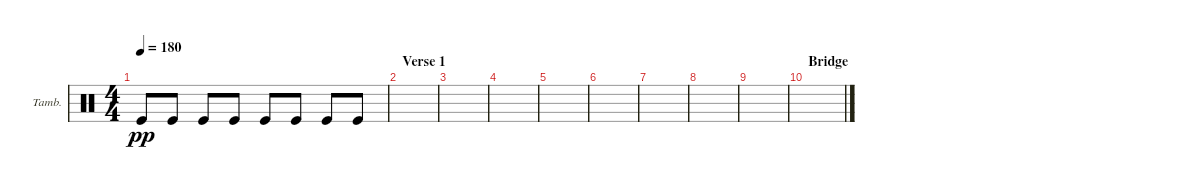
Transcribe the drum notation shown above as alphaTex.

\defaultSystemsLayout 4
\bracketExtendMode groupsimilarinstruments
\firstSystemTrackNameOrientation horizontal
\otherSystemsTrackNameOrientation horizontal
\track ("Tambourine" "Tamb.") {instrument percussion}
\staff {score}
\articulation defaults
\ts (4 4)
\tempo 180
\clef neutral
\scale
0.333333
\ks c "Kick (hit)".8{dy pp} "Kick (hit)".8 "Kick (hit)".8 "Kick (hit)".8 "Kick (hit)".8 "Kick (hit)".8 "Kick (hit)".8 "Kick (hit)".8
|
\section ("" "Verse 1")
\scale
0.333333 |
\scale
0.333333 |
\scale
0.333333 |
\scale
0.333333 |
\scale
0.333333 |
\scale
0.333333 |
\scale
0.333333 |
\scale
0.333333 |
\section ("" "Bridge")
\scale
0.333333 |
\scale
0.333333 |
\scale
0.333333 |
\scale
0.333333 |
\scale
0.333333 |
\scale
0.333333 |
\scale
0.333333
